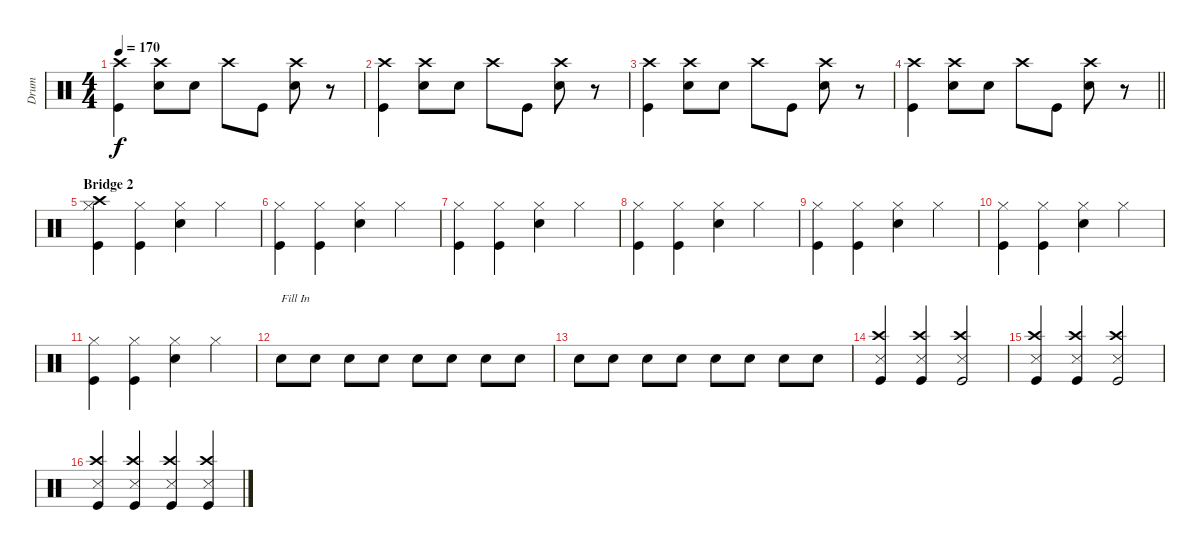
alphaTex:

\track ("Drum" "Drum") {instrument percussion}
\staff {score}
\articulation defaults
\ts (4 4)
\tempo 170
\clef neutral
\ks c
("Kick (hit)" "Crash high (hit)").4{dy f} ("Snare (hit) 2" "Crash high (hit)").8 "Snare (hit) 2".8 "Crash high (hit)".8 "Kick (hit)".8 ("Snare (hit) 2" "Crash high (hit)").8 r.8 |
("Kick (hit)" "Crash high (hit)").4 ("Snare (hit) 2" "Crash high (hit)").8 "Snare (hit) 2".8 "Crash high (hit)".8 "Kick (hit)".8 ("Snare (hit) 2" "Crash high (hit)").8 r.8 |
("Kick (hit)" "Crash high (hit)").4 ("Snare (hit) 2" "Crash high (hit)").8 "Snare (hit) 2".8 "Crash high (hit)".8 "Kick (hit)".8 ("Snare (hit) 2" "Crash high (hit)").8 r.8 |
\barLineRight lightlight
("Kick (hit)" "Crash high (hit)").4 ("Snare (hit) 2" "Crash high (hit)").8 "Snare (hit) 2".8 "Crash high (hit)".8 "Kick (hit)".8 ("Snare (hit) 2" "Crash high (hit)").8 r.8 |
\section ("" "Bridge 2")
("Hi-Hat (closed)" "Kick (hit)" "Crash high (hit)").4 ("Hi-Hat (closed)" "Kick (hit)").4 ("Hi-Hat (closed)" "Snare (hit) 2").4 "Hi-Hat (closed)".4 |
("Hi-Hat (closed)" "Kick (hit)").4 ("Hi-Hat (closed)" "Kick (hit)").4 ("Hi-Hat (closed)" "Snare (hit) 2").4 "Hi-Hat (closed)".4 |
("Hi-Hat (closed)" "Kick (hit)").4 ("Hi-Hat (closed)" "Kick (hit)").4 ("Hi-Hat (closed)" "Snare (hit) 2").4 "Hi-Hat (closed)".4 |
("Hi-Hat (closed)" "Kick (hit)").4 ("Hi-Hat (closed)" "Kick (hit)").4 ("Hi-Hat (closed)" "Snare (hit) 2").4 "Hi-Hat (closed)".4 |
("Hi-Hat (closed)" "Kick (hit)").4 ("Hi-Hat (closed)" "Kick (hit)").4 ("Hi-Hat (closed)" "Snare (hit) 2").4 "Hi-Hat (closed)".4 |
("Hi-Hat (closed)" "Kick (hit)").4 ("Hi-Hat (closed)" "Kick (hit)").4 ("Hi-Hat (closed)" "Snare (hit) 2").4 "Hi-Hat (closed)".4 |
("Hi-Hat (closed)" "Kick (hit)").4 ("Hi-Hat (closed)" "Kick (hit)").4 ("Hi-Hat (closed)" "Snare (hit) 2").4 "Hi-Hat (closed)".4 |
"Snare (hit) 2".8{txt "Fill In"} "Snare (hit) 2".8 "Snare (hit) 2".8 "Snare (hit) 2".8 "Snare (hit) 2".8 "Snare (hit) 2".8 "Snare (hit) 2".8 "Snare (hit) 2".8 |
"Snare (hit) 2".8 "Snare (hit) 2".8 "Snare (hit) 2".8 "Snare (hit) 2".8 "Snare (hit) 2".8 "Snare (hit) 2".8 "Snare (hit) 2".8 "Snare (hit) 2".8 |
("Crash high (hit)" "Snare (side stick) 3" "Kick (hit)").4 ("Crash high (hit)" "Snare (side stick) 3" "Kick (hit)").4 ("Crash high (hit)" "Snare (side stick) 3" "Kick (hit)").2 |
("Crash high (hit)" "Snare (side stick) 3" "Kick (hit)").4 ("Crash high (hit)" "Snare (side stick) 3" "Kick (hit)").4 ("Crash high (hit)" "Snare (side stick) 3" "Kick (hit)").2 |
("Crash high (hit)" "Snare (side stick) 3" "Kick (hit)").4 ("Crash high (hit)" "Snare (side stick) 3" "Kick (hit)").4 ("Crash high (hit)" "Snare (side stick) 3" "Kick (hit)").4 ("Crash high (hit)" "Snare (side stick) 3" "Kick (hit)").4
